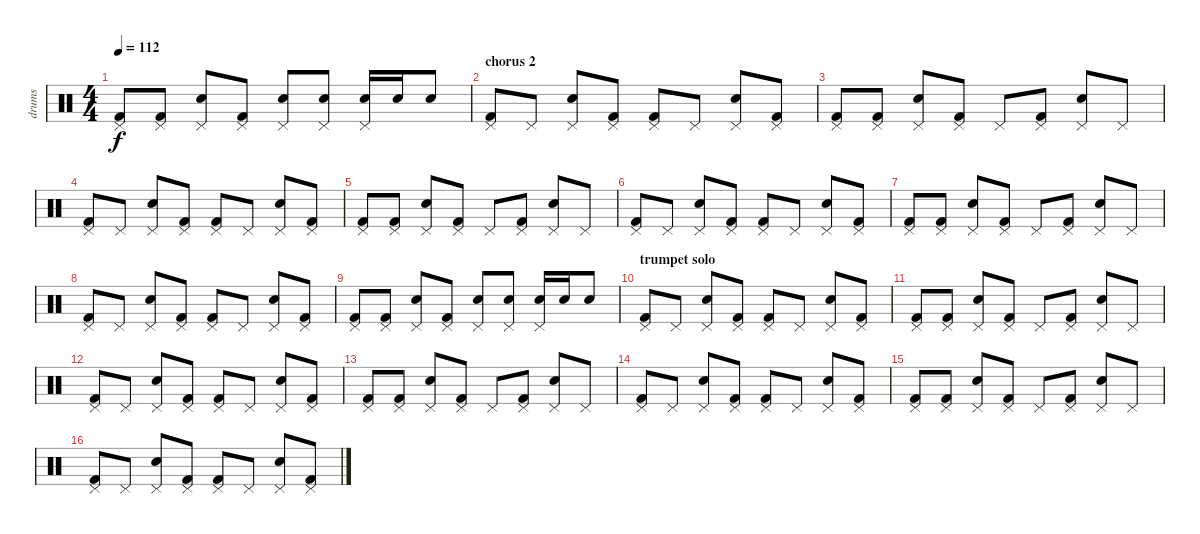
\track ("drums" "drums") {instrument percussion}
\staff {score}
\articulation defaults
\ts (4 4)
\tempo 112
\clef neutral
\ks c
("Kick (hit) 2" "Pedal Hi-Hat (hit)").8{dy f} ("Kick (hit) 2" "Pedal Hi-Hat (hit)").8 ("Snare (hit) 2" "Pedal Hi-Hat (hit)").8 ("Kick (hit) 2" "Pedal Hi-Hat (hit)").8 ("Snare (hit) 2" "Pedal Hi-Hat (hit)").8 ("Snare (hit) 2" "Pedal Hi-Hat (hit)").8 ("Snare (hit) 2" "Pedal Hi-Hat (hit)").16 "Snare (hit) 2".16 "Snare (hit) 2".8 |
\section ("" "chorus 2")
("Kick (hit) 2" "Pedal Hi-Hat (hit)").8 "Pedal Hi-Hat (hit)".8 ("Snare (hit) 2" "Pedal Hi-Hat (hit)").8 ("Kick (hit) 2" "Pedal Hi-Hat (hit)").8 ("Kick (hit) 2" "Pedal Hi-Hat (hit)").8 "Pedal Hi-Hat (hit)".8 ("Snare (hit) 2" "Pedal Hi-Hat (hit)").8 ("Kick (hit) 2" "Pedal Hi-Hat (hit)").8 |
("Kick (hit) 2" "Pedal Hi-Hat (hit)").8 ("Kick (hit) 2" "Pedal Hi-Hat (hit)").8 ("Snare (hit) 2" "Pedal Hi-Hat (hit)").8 ("Kick (hit) 2" "Pedal Hi-Hat (hit)").8 "Pedal Hi-Hat (hit)".8 ("Kick (hit) 2" "Pedal Hi-Hat (hit)").8 ("Snare (hit) 2" "Pedal Hi-Hat (hit)").8 "Pedal Hi-Hat (hit)".8 |
("Kick (hit) 2" "Pedal Hi-Hat (hit)").8 "Pedal Hi-Hat (hit)".8 ("Snare (hit) 2" "Pedal Hi-Hat (hit)").8 ("Kick (hit) 2" "Pedal Hi-Hat (hit)").8 ("Kick (hit) 2" "Pedal Hi-Hat (hit)").8 "Pedal Hi-Hat (hit)".8 ("Snare (hit) 2" "Pedal Hi-Hat (hit)").8 ("Kick (hit) 2" "Pedal Hi-Hat (hit)").8 |
("Kick (hit) 2" "Pedal Hi-Hat (hit)").8 ("Kick (hit) 2" "Pedal Hi-Hat (hit)").8 ("Snare (hit) 2" "Pedal Hi-Hat (hit)").8 ("Kick (hit) 2" "Pedal Hi-Hat (hit)").8 "Pedal Hi-Hat (hit)".8 ("Kick (hit) 2" "Pedal Hi-Hat (hit)").8 ("Snare (hit) 2" "Pedal Hi-Hat (hit)").8 "Pedal Hi-Hat (hit)".8 |
("Kick (hit) 2" "Pedal Hi-Hat (hit)").8 "Pedal Hi-Hat (hit)".8 ("Snare (hit) 2" "Pedal Hi-Hat (hit)").8 ("Kick (hit) 2" "Pedal Hi-Hat (hit)").8 ("Kick (hit) 2" "Pedal Hi-Hat (hit)").8 "Pedal Hi-Hat (hit)".8 ("Snare (hit) 2" "Pedal Hi-Hat (hit)").8 ("Kick (hit) 2" "Pedal Hi-Hat (hit)").8 |
("Kick (hit) 2" "Pedal Hi-Hat (hit)").8 ("Kick (hit) 2" "Pedal Hi-Hat (hit)").8 ("Snare (hit) 2" "Pedal Hi-Hat (hit)").8 ("Kick (hit) 2" "Pedal Hi-Hat (hit)").8 "Pedal Hi-Hat (hit)".8 ("Kick (hit) 2" "Pedal Hi-Hat (hit)").8 ("Snare (hit) 2" "Pedal Hi-Hat (hit)").8 "Pedal Hi-Hat (hit)".8 |
("Kick (hit) 2" "Pedal Hi-Hat (hit)").8 "Pedal Hi-Hat (hit)".8 ("Snare (hit) 2" "Pedal Hi-Hat (hit)").8 ("Kick (hit) 2" "Pedal Hi-Hat (hit)").8 ("Kick (hit) 2" "Pedal Hi-Hat (hit)").8 "Pedal Hi-Hat (hit)".8 ("Snare (hit) 2" "Pedal Hi-Hat (hit)").8 ("Kick (hit) 2" "Pedal Hi-Hat (hit)").8 |
("Kick (hit) 2" "Pedal Hi-Hat (hit)").8 ("Kick (hit) 2" "Pedal Hi-Hat (hit)").8 ("Snare (hit) 2" "Pedal Hi-Hat (hit)").8 ("Kick (hit) 2" "Pedal Hi-Hat (hit)").8 ("Snare (hit) 2" "Pedal Hi-Hat (hit)").8 ("Snare (hit) 2" "Pedal Hi-Hat (hit)").8 ("Snare (hit) 2" "Pedal Hi-Hat (hit)").16 "Snare (hit) 2".16 "Snare (hit) 2".8 |
\section ("" "trumpet solo")
("Kick (hit) 2" "Pedal Hi-Hat (hit)").8 "Pedal Hi-Hat (hit)".8 ("Snare (hit) 2" "Pedal Hi-Hat (hit)").8 ("Kick (hit) 2" "Pedal Hi-Hat (hit)").8 ("Kick (hit) 2" "Pedal Hi-Hat (hit)").8 "Pedal Hi-Hat (hit)".8 ("Snare (hit) 2" "Pedal Hi-Hat (hit)").8 ("Kick (hit) 2" "Pedal Hi-Hat (hit)").8 |
("Kick (hit) 2" "Pedal Hi-Hat (hit)").8 ("Kick (hit) 2" "Pedal Hi-Hat (hit)").8 ("Snare (hit) 2" "Pedal Hi-Hat (hit)").8 ("Kick (hit) 2" "Pedal Hi-Hat (hit)").8 "Pedal Hi-Hat (hit)".8 ("Kick (hit) 2" "Pedal Hi-Hat (hit)").8 ("Snare (hit) 2" "Pedal Hi-Hat (hit)").8 "Pedal Hi-Hat (hit)".8 |
("Kick (hit) 2" "Pedal Hi-Hat (hit)").8 "Pedal Hi-Hat (hit)".8 ("Snare (hit) 2" "Pedal Hi-Hat (hit)").8 ("Kick (hit) 2" "Pedal Hi-Hat (hit)").8 ("Kick (hit) 2" "Pedal Hi-Hat (hit)").8 "Pedal Hi-Hat (hit)".8 ("Snare (hit) 2" "Pedal Hi-Hat (hit)").8 ("Kick (hit) 2" "Pedal Hi-Hat (hit)").8 |
("Kick (hit) 2" "Pedal Hi-Hat (hit)").8 ("Kick (hit) 2" "Pedal Hi-Hat (hit)").8 ("Snare (hit) 2" "Pedal Hi-Hat (hit)").8 ("Kick (hit) 2" "Pedal Hi-Hat (hit)").8 "Pedal Hi-Hat (hit)".8 ("Kick (hit) 2" "Pedal Hi-Hat (hit)").8 ("Snare (hit) 2" "Pedal Hi-Hat (hit)").8 "Pedal Hi-Hat (hit)".8 |
("Kick (hit) 2" "Pedal Hi-Hat (hit)").8 "Pedal Hi-Hat (hit)".8 ("Snare (hit) 2" "Pedal Hi-Hat (hit)").8 ("Kick (hit) 2" "Pedal Hi-Hat (hit)").8 ("Kick (hit) 2" "Pedal Hi-Hat (hit)").8 "Pedal Hi-Hat (hit)".8 ("Snare (hit) 2" "Pedal Hi-Hat (hit)").8 ("Kick (hit) 2" "Pedal Hi-Hat (hit)").8 |
("Kick (hit) 2" "Pedal Hi-Hat (hit)").8 ("Kick (hit) 2" "Pedal Hi-Hat (hit)").8 ("Snare (hit) 2" "Pedal Hi-Hat (hit)").8 ("Kick (hit) 2" "Pedal Hi-Hat (hit)").8 "Pedal Hi-Hat (hit)".8 ("Kick (hit) 2" "Pedal Hi-Hat (hit)").8 ("Snare (hit) 2" "Pedal Hi-Hat (hit)").8 "Pedal Hi-Hat (hit)".8 |
("Kick (hit) 2" "Pedal Hi-Hat (hit)").8 "Pedal Hi-Hat (hit)".8 ("Snare (hit) 2" "Pedal Hi-Hat (hit)").8 ("Kick (hit) 2" "Pedal Hi-Hat (hit)").8 ("Kick (hit) 2" "Pedal Hi-Hat (hit)").8 "Pedal Hi-Hat (hit)".8 ("Snare (hit) 2" "Pedal Hi-Hat (hit)").8 ("Kick (hit) 2" "Pedal Hi-Hat (hit)").8
